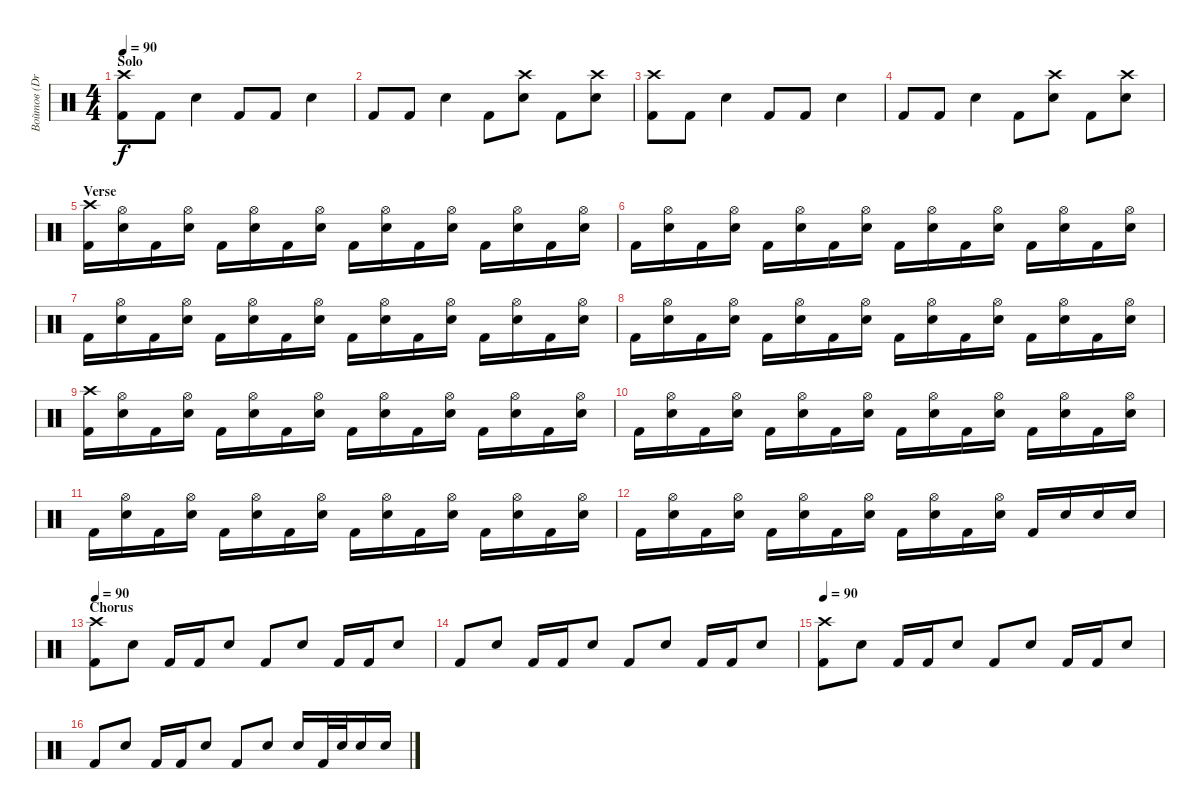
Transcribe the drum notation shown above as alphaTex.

\track ("Войтов (Drums)" "Войтов (Dr") {instrument percussion}
\staff {score}
\articulation defaults
\ts (4 4)
\section ("" "Solo")
\tempo 90
\clef neutral
\ks c
("Kick (hit) 2" "Crash high (hit)").8{dy f} "Kick (hit) 2".8 "Electric Snare (hit)".4 "Kick (hit) 2".8 "Kick (hit) 2".8 "Electric Snare (hit)".4 |
"Kick (hit) 2".8 "Kick (hit) 2".8 "Electric Snare (hit)".4 "Kick (hit) 2".8 ("Crash high (hit)" "Electric Snare (hit)").8 "Kick (hit) 2".8 ("Crash high (hit)" "Electric Snare (hit)").8 |
("Kick (hit) 2" "Crash high (hit)").8 "Kick (hit) 2".8 "Electric Snare (hit)".4 "Kick (hit) 2".8 "Kick (hit) 2".8 "Electric Snare (hit)".4 |
"Kick (hit) 2".8 "Kick (hit) 2".8 "Electric Snare (hit)".4 "Kick (hit) 2".8 ("Crash high (hit)" "Electric Snare (hit)").8 "Kick (hit) 2".8 ("Crash high (hit)" "Electric Snare (hit)").8 |
\section ("" "Verse")
("Kick (hit) 2" "Crash high (hit)").16 ("Electric Snare (hit)" "Hi-Hat (open)").16 "Kick (hit) 2".16 ("Electric Snare (hit)" "Hi-Hat (open)").16 "Kick (hit) 2".16 ("Electric Snare (hit)" "Hi-Hat (open)").16 "Kick (hit) 2".16 ("Electric Snare (hit)" "Hi-Hat (open)").16 "Kick (hit) 2".16 ("Electric Snare (hit)" "Hi-Hat (open)").16 "Kick (hit) 2".16 ("Electric Snare (hit)" "Hi-Hat (open)").16 "Kick (hit) 2".16 ("Electric Snare (hit)" "Hi-Hat (open)").16 "Kick (hit) 2".16 ("Electric Snare (hit)" "Hi-Hat (open)").16 |
"Kick (hit) 2".16 ("Electric Snare (hit)" "Hi-Hat (open)").16 "Kick (hit) 2".16 ("Electric Snare (hit)" "Hi-Hat (open)").16 "Kick (hit) 2".16 ("Electric Snare (hit)" "Hi-Hat (open)").16 "Kick (hit) 2".16 ("Electric Snare (hit)" "Hi-Hat (open)").16 "Kick (hit) 2".16 ("Electric Snare (hit)" "Hi-Hat (open)").16 "Kick (hit) 2".16 ("Electric Snare (hit)" "Hi-Hat (open)").16 "Kick (hit) 2".16 ("Electric Snare (hit)" "Hi-Hat (open)").16 "Kick (hit) 2".16 ("Electric Snare (hit)" "Hi-Hat (open)").16 |
"Kick (hit) 2".16 ("Electric Snare (hit)" "Hi-Hat (open)").16 "Kick (hit) 2".16 ("Electric Snare (hit)" "Hi-Hat (open)").16 "Kick (hit) 2".16 ("Electric Snare (hit)" "Hi-Hat (open)").16 "Kick (hit) 2".16 ("Electric Snare (hit)" "Hi-Hat (open)").16 "Kick (hit) 2".16 ("Electric Snare (hit)" "Hi-Hat (open)").16 "Kick (hit) 2".16 ("Electric Snare (hit)" "Hi-Hat (open)").16 "Kick (hit) 2".16 ("Electric Snare (hit)" "Hi-Hat (open)").16 "Kick (hit) 2".16 ("Electric Snare (hit)" "Hi-Hat (open)").16 |
"Kick (hit) 2".16 ("Electric Snare (hit)" "Hi-Hat (open)").16 "Kick (hit) 2".16 ("Electric Snare (hit)" "Hi-Hat (open)").16 "Kick (hit) 2".16 ("Electric Snare (hit)" "Hi-Hat (open)").16 "Kick (hit) 2".16 ("Electric Snare (hit)" "Hi-Hat (open)").16 "Kick (hit) 2".16 ("Electric Snare (hit)" "Hi-Hat (open)").16 "Kick (hit) 2".16 ("Electric Snare (hit)" "Hi-Hat (open)").16 "Kick (hit) 2".16 ("Electric Snare (hit)" "Hi-Hat (open)").16 "Kick (hit) 2".16 ("Electric Snare (hit)" "Hi-Hat (open)").16 |
("Kick (hit) 2" "Crash high (hit)").16 ("Electric Snare (hit)" "Hi-Hat (open)").16 "Kick (hit) 2".16 ("Electric Snare (hit)" "Hi-Hat (open)").16 "Kick (hit) 2".16 ("Electric Snare (hit)" "Hi-Hat (open)").16 "Kick (hit) 2".16 ("Electric Snare (hit)" "Hi-Hat (open)").16 "Kick (hit) 2".16 ("Electric Snare (hit)" "Hi-Hat (open)").16 "Kick (hit) 2".16 ("Electric Snare (hit)" "Hi-Hat (open)").16 "Kick (hit) 2".16 ("Electric Snare (hit)" "Hi-Hat (open)").16 "Kick (hit) 2".16 ("Electric Snare (hit)" "Hi-Hat (open)").16 |
"Kick (hit) 2".16 ("Electric Snare (hit)" "Hi-Hat (open)").16 "Kick (hit) 2".16 ("Electric Snare (hit)" "Hi-Hat (open)").16 "Kick (hit) 2".16 ("Electric Snare (hit)" "Hi-Hat (open)").16 "Kick (hit) 2".16 ("Electric Snare (hit)" "Hi-Hat (open)").16 "Kick (hit) 2".16 ("Electric Snare (hit)" "Hi-Hat (open)").16 "Kick (hit) 2".16 ("Electric Snare (hit)" "Hi-Hat (open)").16 "Kick (hit) 2".16 ("Electric Snare (hit)" "Hi-Hat (open)").16 "Kick (hit) 2".16 ("Electric Snare (hit)" "Hi-Hat (open)").16 |
"Kick (hit) 2".16 ("Electric Snare (hit)" "Hi-Hat (open)").16 "Kick (hit) 2".16 ("Electric Snare (hit)" "Hi-Hat (open)").16 "Kick (hit) 2".16 ("Electric Snare (hit)" "Hi-Hat (open)").16 "Kick (hit) 2".16 ("Electric Snare (hit)" "Hi-Hat (open)").16 "Kick (hit) 2".16 ("Electric Snare (hit)" "Hi-Hat (open)").16 "Kick (hit) 2".16 ("Electric Snare (hit)" "Hi-Hat (open)").16 "Kick (hit) 2".16 ("Electric Snare (hit)" "Hi-Hat (open)").16 "Kick (hit) 2".16 ("Electric Snare (hit)" "Hi-Hat (open)").16 |
"Kick (hit) 2".16 ("Electric Snare (hit)" "Hi-Hat (open)").16 "Kick (hit) 2".16 ("Electric Snare (hit)" "Hi-Hat (open)").16 "Kick (hit) 2".16 ("Electric Snare (hit)" "Hi-Hat (open)").16 "Kick (hit) 2".16 ("Electric Snare (hit)" "Hi-Hat (open)").16 "Kick (hit) 2".16 ("Electric Snare (hit)" "Hi-Hat (open)").16 "Kick (hit) 2".16 ("Electric Snare (hit)" "Hi-Hat (open)").16 "Kick (hit) 2".16 "Electric Snare (hit)".16 "Electric Snare (hit)".16 "Electric Snare (hit)".16 |
\section ("" "Chorus")
\tempo 90
("Kick (hit) 2" "Crash high (hit)").8 "Electric Snare (hit)".8 "Kick (hit) 2".16 "Kick (hit) 2".16 "Electric Snare (hit)".8 "Kick (hit) 2".8 "Electric Snare (hit)".8 "Kick (hit) 2".16 "Kick (hit) 2".16 "Electric Snare (hit)".8 |
"Kick (hit) 2".8 "Electric Snare (hit)".8 "Kick (hit) 2".16 "Kick (hit) 2".16 "Electric Snare (hit)".8 "Kick (hit) 2".8 "Electric Snare (hit)".8 "Kick (hit) 2".16 "Kick (hit) 2".16 "Electric Snare (hit)".8 |
\tempo 90
("Kick (hit) 2" "Crash high (hit)").8 "Electric Snare (hit)".8 "Kick (hit) 2".16 "Kick (hit) 2".16 "Electric Snare (hit)".8 "Kick (hit) 2".8 "Electric Snare (hit)".8 "Kick (hit) 2".16 "Kick (hit) 2".16 "Electric Snare (hit)".8 |
"Kick (hit) 2".8 "Electric Snare (hit)".8 "Kick (hit) 2".16 "Kick (hit) 2".16 "Electric Snare (hit)".8 "Kick (hit) 2".8 "Electric Snare (hit)".8 "Electric Snare (hit)".16 "Kick (hit) 2".32 "Electric Snare (hit)".32 "Electric Snare (hit)".16 "Electric Snare (hit)".16
